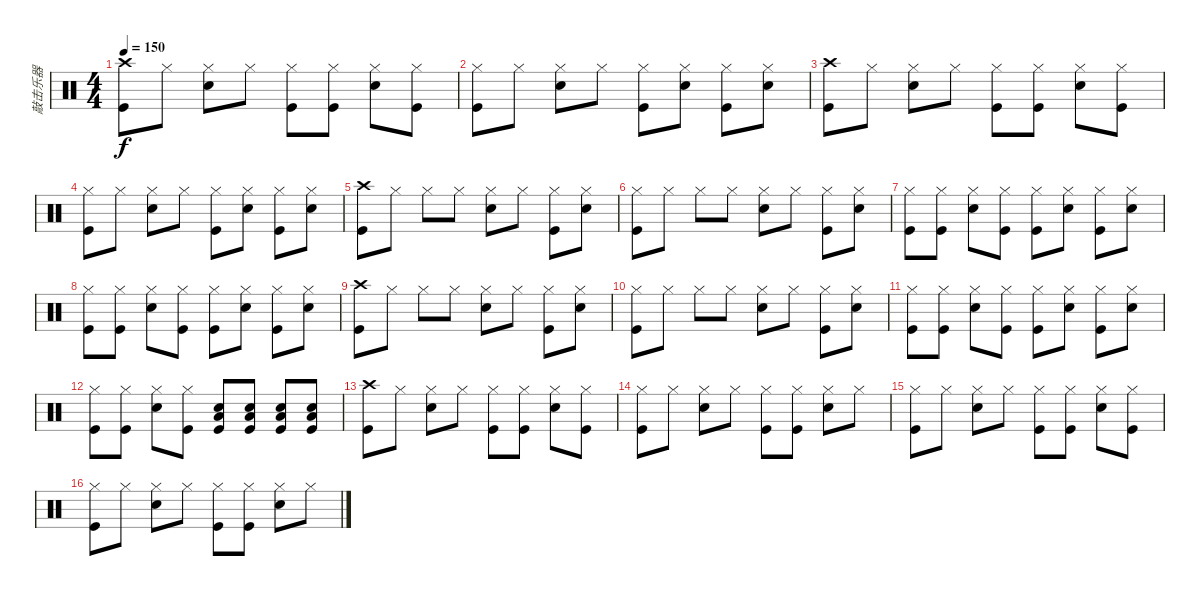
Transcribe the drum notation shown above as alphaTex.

\track ("敲击乐器" "敲击乐器") {instrument percussion}
\staff {score}
\articulation defaults
\ts (4 4)
\tempo 150
\clef neutral
\ks c
("Crash high (hit)" "Kick (hit)").8{dy f} "Hi-Hat (closed)".8 ("Hi-Hat (closed)" "Electric Snare (hit)").8 "Hi-Hat (closed)".8 ("Hi-Hat (closed)" "Kick (hit)").8 ("Hi-Hat (closed)" "Kick (hit)").8 ("Hi-Hat (closed)" "Electric Snare (hit)").8 ("Hi-Hat (closed)" "Kick (hit)").8 |
("Hi-Hat (closed)" "Kick (hit)").8 "Hi-Hat (closed)".8 ("Hi-Hat (closed)" "Electric Snare (hit)").8 "Hi-Hat (closed)".8 ("Hi-Hat (closed)" "Kick (hit)").8 ("Hi-Hat (closed)" "Electric Snare (hit)").8 ("Hi-Hat (closed)" "Kick (hit)").8 ("Hi-Hat (closed)" "Electric Snare (hit)").8 |
("Crash high (hit)" "Kick (hit)").8 "Hi-Hat (closed)".8 ("Hi-Hat (closed)" "Electric Snare (hit)").8 "Hi-Hat (closed)".8 ("Hi-Hat (closed)" "Kick (hit)").8 ("Hi-Hat (closed)" "Kick (hit)").8 ("Hi-Hat (closed)" "Electric Snare (hit)").8 ("Hi-Hat (closed)" "Kick (hit)").8 |
("Hi-Hat (closed)" "Kick (hit)").8 "Hi-Hat (closed)".8 ("Hi-Hat (closed)" "Electric Snare (hit)").8 "Hi-Hat (closed)".8 ("Hi-Hat (closed)" "Kick (hit)").8 ("Hi-Hat (closed)" "Electric Snare (hit)").8 ("Hi-Hat (closed)" "Kick (hit)").8 ("Hi-Hat (closed)" "Electric Snare (hit)").8 |
("Crash high (hit)" "Kick (hit)").8 "Hi-Hat (closed)".8 "Hi-Hat (closed)".8 "Hi-Hat (closed)".8 ("Hi-Hat (closed)" "Electric Snare (hit)").8 "Hi-Hat (closed)".8 ("Hi-Hat (closed)" "Kick (hit)").8 ("Hi-Hat (closed)" "Electric Snare (hit)").8 |
("Hi-Hat (closed)" "Kick (hit)").8 "Hi-Hat (closed)".8 "Hi-Hat (closed)".8 "Hi-Hat (closed)".8 ("Hi-Hat (closed)" "Electric Snare (hit)").8 "Hi-Hat (closed)".8 ("Hi-Hat (closed)" "Kick (hit)").8 ("Hi-Hat (closed)" "Electric Snare (hit)").8 |
("Hi-Hat (closed)" "Kick (hit)").8 ("Hi-Hat (closed)" "Kick (hit)").8 ("Hi-Hat (closed)" "Electric Snare (hit)").8 ("Hi-Hat (closed)" "Kick (hit)").8 ("Hi-Hat (closed)" "Kick (hit)").8 ("Hi-Hat (closed)" "Electric Snare (hit)").8 ("Hi-Hat (closed)" "Kick (hit)").8 ("Hi-Hat (closed)" "Electric Snare (hit)").8 |
("Hi-Hat (closed)" "Kick (hit)").8 ("Hi-Hat (closed)" "Kick (hit)").8 ("Hi-Hat (closed)" "Electric Snare (hit)").8 ("Hi-Hat (closed)" "Kick (hit)").8 ("Hi-Hat (closed)" "Kick (hit)").8 ("Hi-Hat (closed)" "Electric Snare (hit)").8 ("Hi-Hat (closed)" "Kick (hit)").8 ("Hi-Hat (closed)" "Electric Snare (hit)").8 |
("Crash high (hit)" "Kick (hit)").8 "Hi-Hat (closed)".8 "Hi-Hat (closed)".8 "Hi-Hat (closed)".8 ("Hi-Hat (closed)" "Electric Snare (hit)").8 "Hi-Hat (closed)".8 ("Hi-Hat (closed)" "Kick (hit)").8 ("Hi-Hat (closed)" "Electric Snare (hit)").8 |
("Hi-Hat (closed)" "Kick (hit)").8 "Hi-Hat (closed)".8 "Hi-Hat (closed)".8 "Hi-Hat (closed)".8 ("Hi-Hat (closed)" "Electric Snare (hit)").8 "Hi-Hat (closed)".8 ("Hi-Hat (closed)" "Kick (hit)").8 ("Hi-Hat (closed)" "Electric Snare (hit)").8 |
("Hi-Hat (closed)" "Kick (hit)").8 ("Hi-Hat (closed)" "Kick (hit)").8 ("Hi-Hat (closed)" "Electric Snare (hit)").8 ("Hi-Hat (closed)" "Kick (hit)").8 ("Hi-Hat (closed)" "Kick (hit)").8 ("Hi-Hat (closed)" "Electric Snare (hit)").8 ("Hi-Hat (closed)" "Kick (hit)").8 ("Hi-Hat (closed)" "Electric Snare (hit)").8 |
("Hi-Hat (closed)" "Kick (hit)").8 ("Hi-Hat (closed)" "Kick (hit)").8 ("Hi-Hat (closed)" "Electric Snare (hit)").8 ("Hi-Hat (closed)" "Kick (hit)").8 ("Low Floor Tom (hit)" "Electric Snare (hit)" "Kick (hit)").8 ("Low Floor Tom (hit)" "Electric Snare (hit)" "Kick (hit)").8 ("Low Floor Tom (hit)" "Electric Snare (hit)" "Kick (hit)").8 ("Low Floor Tom (hit)" "Electric Snare (hit)" "Kick (hit)").8 |
("Crash high (hit)" "Kick (hit)").8 "Hi-Hat (closed)".8 ("Hi-Hat (closed)" "Electric Snare (hit)").8 "Hi-Hat (closed)".8 ("Hi-Hat (closed)" "Kick (hit)").8 ("Hi-Hat (closed)" "Kick (hit)").8 ("Hi-Hat (closed)" "Electric Snare (hit)").8 ("Hi-Hat (closed)" "Kick (hit)").8 |
("Hi-Hat (closed)" "Kick (hit)").8 "Hi-Hat (closed)".8 ("Hi-Hat (closed)" "Electric Snare (hit)").8 "Hi-Hat (closed)".8 ("Hi-Hat (closed)" "Kick (hit)").8 ("Hi-Hat (closed)" "Kick (hit)").8 ("Hi-Hat (closed)" "Electric Snare (hit)").8 "Hi-Hat (closed)".8 |
("Hi-Hat (closed)" "Kick (hit)").8 "Hi-Hat (closed)".8 ("Hi-Hat (closed)" "Electric Snare (hit)").8 "Hi-Hat (closed)".8 ("Hi-Hat (closed)" "Kick (hit)").8 ("Hi-Hat (closed)" "Kick (hit)").8 ("Hi-Hat (closed)" "Electric Snare (hit)").8 ("Hi-Hat (closed)" "Kick (hit)").8 |
("Hi-Hat (closed)" "Kick (hit)").8 "Hi-Hat (closed)".8 ("Hi-Hat (closed)" "Electric Snare (hit)").8 "Hi-Hat (closed)".8 ("Hi-Hat (closed)" "Kick (hit)").8 ("Hi-Hat (closed)" "Kick (hit)").8 ("Hi-Hat (closed)" "Electric Snare (hit)").8 "Hi-Hat (closed)".8
